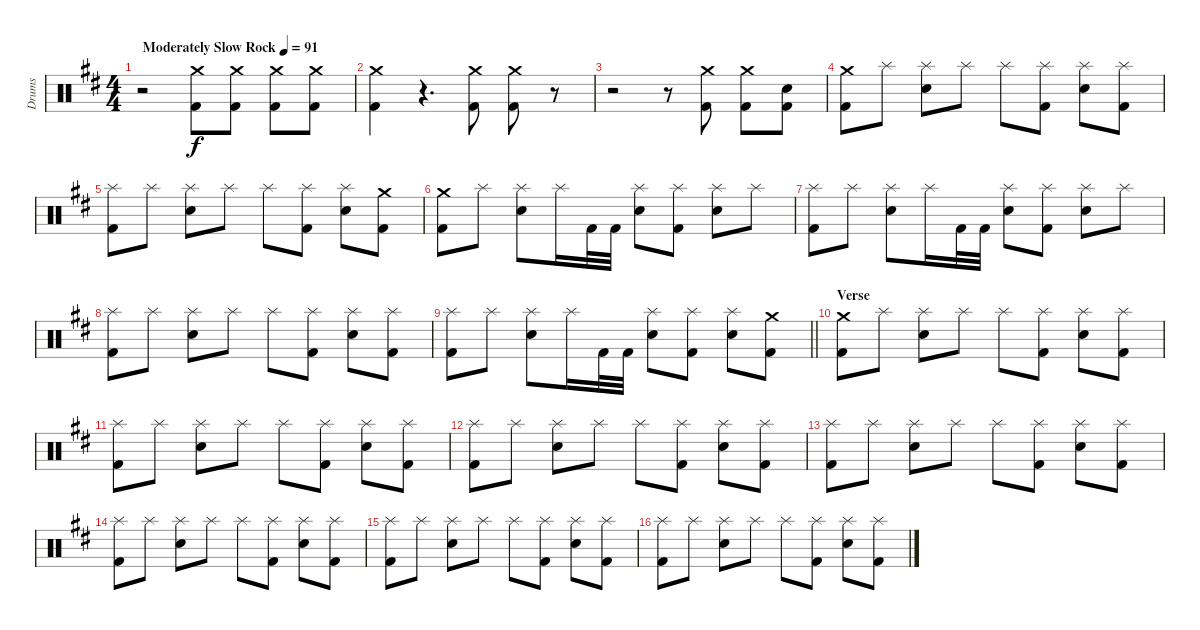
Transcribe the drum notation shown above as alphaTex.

\track ("Drums" "Drums") {instrument percussion}
\staff {score}
\articulation defaults
\ts (4 4)
\tempo (91 "Moderately Slow Rock")
\clef neutral
\ks bminor
r.2{dy f} ("Crash medium (hit)" "Kick (hit) 2").8 ("Crash medium (hit)" "Kick (hit) 2").8 ("Crash medium (hit)" "Kick (hit) 2").8 ("Crash medium (hit)" "Kick (hit) 2").8 |
("Crash medium (hit)" "Kick (hit) 2").4 r.4{d} ("Crash medium (hit)" "Kick (hit) 2").8 ("Crash medium (hit)" "Kick (hit) 2").8 r.8 |
r.2 r.8 ("Crash medium (hit)" "Kick (hit) 2").8 ("Crash medium (hit)" "Kick (hit) 2").8 ("Snare (hit) 2" "Kick (hit) 2").8 |
("Crash medium (hit)" "Kick (hit) 2").8 "Splash (hit)".8 ("Splash (hit)" "Snare (hit) 2").8 "Splash (hit)".8 "Splash (hit)".8 ("Splash (hit)" "Kick (hit) 2").8 ("Splash (hit)" "Snare (hit) 2").8 ("Splash (hit)" "Kick (hit) 2").8 |
("Splash (hit)" "Kick (hit) 2").8 "Splash (hit)".8 ("Splash (hit)" "Snare (hit) 2").8 "Splash (hit)".8 "Splash (hit)".8 ("Splash (hit)" "Kick (hit) 2").8 ("Splash (hit)" "Snare (hit) 2").8 ("Crash medium (hit)" "Kick (hit) 2").8 |
("Crash medium (hit)" "Kick (hit) 2").8 "Splash (hit)".8 ("Splash (hit)" "Snare (hit) 2").8 "Splash (hit)".16 "Kick (hit) 2".32 "Kick (hit) 2".32 ("Splash (hit)" "Snare (hit) 2").8 ("Splash (hit)" "Kick (hit) 2").8 ("Splash (hit)" "Snare (hit) 2").8 "Splash (hit)".8 |
("Splash (hit)" "Kick (hit) 2").8 "Splash (hit)".8 ("Splash (hit)" "Snare (hit) 2").8 "Splash (hit)".16 "Kick (hit) 2".32 "Kick (hit) 2".32 ("Splash (hit)" "Snare (hit) 2").8 ("Splash (hit)" "Kick (hit) 2").8 ("Splash (hit)" "Snare (hit) 2").8 "Splash (hit)".8 |
("Splash (hit)" "Kick (hit) 2").8 "Splash (hit)".8 ("Splash (hit)" "Snare (hit) 2").8 "Splash (hit)".8 "Splash (hit)".8 ("Splash (hit)" "Kick (hit) 2").8 ("Splash (hit)" "Snare (hit) 2").8 ("Splash (hit)" "Kick (hit) 2").8 |
\barLineRight lightlight
("Splash (hit)" "Kick (hit) 2").8 "Splash (hit)".8 ("Splash (hit)" "Snare (hit) 2").8 "Splash (hit)".16 "Kick (hit) 2".32 "Kick (hit) 2".32 ("Splash (hit)" "Snare (hit) 2").8 ("Splash (hit)" "Kick (hit) 2").8 ("Splash (hit)" "Snare (hit) 2").8 ("Crash medium (hit)" "Kick (hit) 2").8 |
\section ("" "Verse")
("Crash medium (hit)" "Kick (hit) 2").8 "Splash (hit)".8 ("Splash (hit)" "Snare (hit) 2").8 "Splash (hit)".8 "Splash (hit)".8 ("Splash (hit)" "Kick (hit) 2").8 ("Splash (hit)" "Snare (hit) 2").8 ("Splash (hit)" "Kick (hit) 2").8 |
("Splash (hit)" "Kick (hit) 2").8 "Splash (hit)".8 ("Splash (hit)" "Snare (hit) 2").8 "Splash (hit)".8 "Splash (hit)".8 ("Splash (hit)" "Kick (hit) 2").8 ("Splash (hit)" "Snare (hit) 2").8 ("Splash (hit)" "Kick (hit) 2").8 |
("Splash (hit)" "Kick (hit) 2").8 "Splash (hit)".8 ("Splash (hit)" "Snare (hit) 2").8 "Splash (hit)".8 "Splash (hit)".8 ("Splash (hit)" "Kick (hit) 2").8 ("Splash (hit)" "Snare (hit) 2").8 ("Splash (hit)" "Kick (hit) 2").8 |
("Splash (hit)" "Kick (hit) 2").8 "Splash (hit)".8 ("Splash (hit)" "Snare (hit) 2").8 "Splash (hit)".8 "Splash (hit)".8 ("Splash (hit)" "Kick (hit) 2").8 ("Splash (hit)" "Snare (hit) 2").8 ("Splash (hit)" "Kick (hit) 2").8 |
("Splash (hit)" "Kick (hit) 2").8 "Splash (hit)".8 ("Splash (hit)" "Snare (hit) 2").8 "Splash (hit)".8 "Splash (hit)".8 ("Splash (hit)" "Kick (hit) 2").8 ("Splash (hit)" "Snare (hit) 2").8 ("Splash (hit)" "Kick (hit) 2").8 |
("Splash (hit)" "Kick (hit) 2").8 "Splash (hit)".8 ("Splash (hit)" "Snare (hit) 2").8 "Splash (hit)".8 "Splash (hit)".8 ("Splash (hit)" "Kick (hit) 2").8 ("Splash (hit)" "Snare (hit) 2").8 ("Splash (hit)" "Kick (hit) 2").8 |
("Splash (hit)" "Kick (hit) 2").8 "Splash (hit)".8 ("Splash (hit)" "Snare (hit) 2").8 "Splash (hit)".8 "Splash (hit)".8 ("Splash (hit)" "Kick (hit) 2").8 ("Splash (hit)" "Snare (hit) 2").8 ("Splash (hit)" "Kick (hit) 2").8
